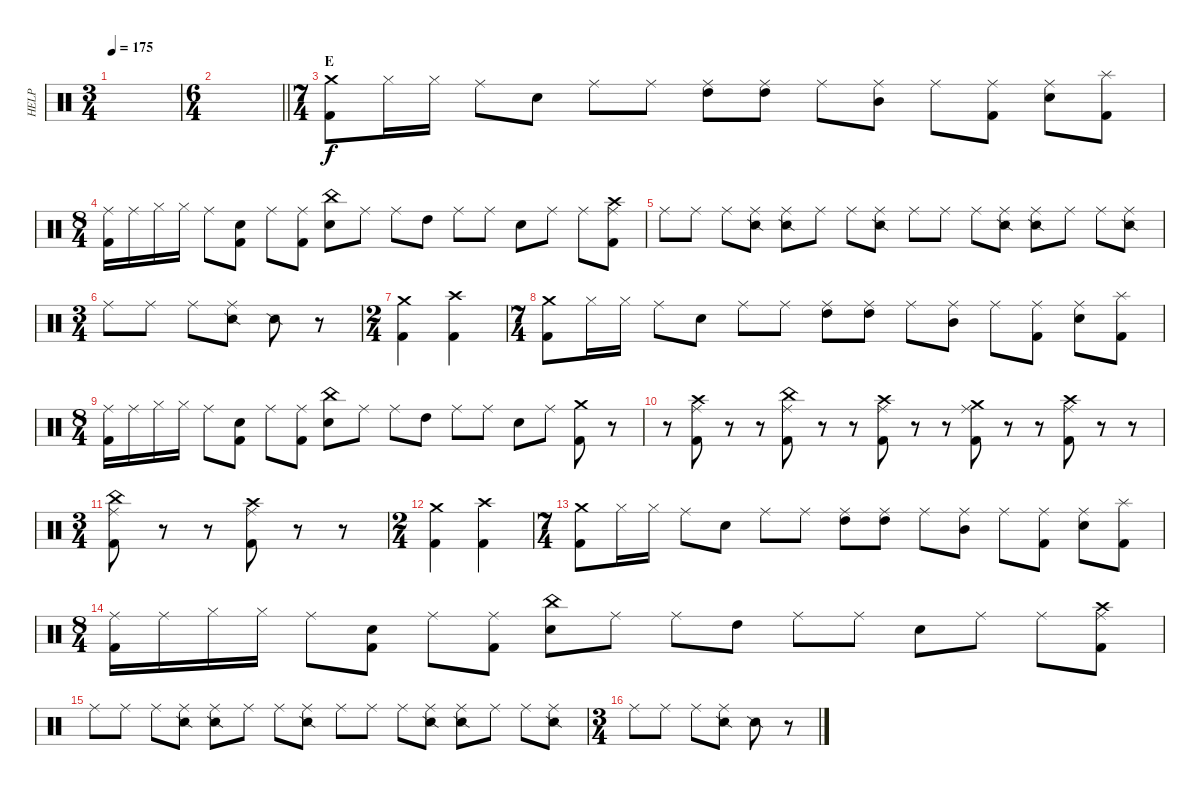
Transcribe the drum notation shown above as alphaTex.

\track ("HELP" "HELP") {instrument percussion}
\staff {score}
\articulation defaults
\ts (3 4)
\tempo 175
\clef neutral
\ks c
|
\ts (6 4)
\barLineRight lightlight
|
\ts (7 4)
\section ("" "E")
("Crash medium (hit)" "Kick (hit) 2").8 "Hi-Hat (closed)".16 "Hi-Hat (closed)".16 "Ride (middle)".8 "Snare (hit) 2".8 "Ride (middle)".8 "Ride (middle)".8 ("Ride (middle)" "High Tom (hit)").8 ("Ride (middle)" "High Tom (hit)").8 "Ride (middle)".8 ("Ride (middle)" "Mid Tom (hit)").8 "Ride (middle)".8 ("Ride (middle)" "Kick (hit) 2").8 ("Ride (middle)" "Snare (hit) 2").8 ("Splash (hit)" "Kick (hit) 2").8 |
\ts (8 4)
("Ride (middle)" "Kick (hit) 2").16 "Ride (middle)".16 "Hi-Hat (closed)".16 "Hi-Hat (closed)".16 "Ride (middle)".8 ("Snare (hit) 2" "Kick (hit) 2").8 "Ride (middle)".8 ("Ride (middle)" "Kick (hit) 2").8 ("China (hit)" "Snare (hit) 2").8 "Ride (middle)".8 "Ride (middle)".8 "High Tom (hit)".8 "Ride (middle)".8 "Ride (middle)".8 "Snare (hit) 2".8 "Ride (middle)".8 "Ride (middle)".8 ("Crash high (hit)" "Ride (middle)" "Kick (hit) 2").8 |
"Ride (middle)".8 "Ride (middle)".8 "Ride (middle)".8 ("Ride (middle)" "Snare (side stick) 2").8 ("Ride (middle)" "Snare (side stick) 2").8 "Ride (middle)".8 "Ride (middle)".8 ("Ride (middle)" "Snare (side stick) 2").8 "Ride (middle)".8 "Ride (middle)".8 "Ride (middle)".8 ("Ride (middle)" "Snare (side stick) 2").8 ("Ride (middle)" "Snare (side stick) 2").8 "Ride (middle)".8 "Ride (middle)".8 ("Ride (middle)" "Snare (side stick) 2").8 |
\ts (3 4)
"Ride (middle)".8 "Ride (middle)".8 "Ride (middle)".8 ("Ride (middle)" "Snare (side stick) 2").8 "Snare (side stick) 2".8 r.8 |
\ts (2 4)
("Crash medium (hit)" "Kick (hit) 2").4 ("Crash high (hit)" "Kick (hit) 2").4 |
\ts (7 4)
("Crash medium (hit)" "Kick (hit) 2").8 "Hi-Hat (closed)".16 "Hi-Hat (closed)".16 "Ride (middle)".8 "Snare (hit) 2".8 "Ride (middle)".8 "Ride (middle)".8 ("Ride (middle)" "High Tom (hit)").8 ("Ride (middle)" "High Tom (hit)").8 "Ride (middle)".8 ("Ride (middle)" "Mid Tom (hit)").8 "Ride (middle)".8 ("Ride (middle)" "Kick (hit) 2").8 ("Ride (middle)" "Snare (hit) 2").8 ("Splash (hit)" "Kick (hit) 2").8 |
\ts (8 4)
("Ride (middle)" "Kick (hit) 2").16 "Ride (middle)".16 "Hi-Hat (closed)".16 "Hi-Hat (closed)".16 "Ride (middle)".8 ("Snare (hit) 2" "Kick (hit) 2").8 "Ride (middle)".8 ("Ride (middle)" "Kick (hit) 2").8 ("China (hit)" "Snare (hit) 2").8 "Ride (middle)".8 "Ride (middle)".8 "High Tom (hit)".8 "Ride (middle)".8 "Ride (middle)".8 "Snare (hit) 2".8 "Ride (middle)".8 ("Crash medium (hit)" "Kick (hit) 2").8 r.8 |
r.8 ("Crash high (hit)" "Ride (middle)" "Kick (hit) 2").8 r.8 r.8 ("China (hit)" "Ride (middle)" "Kick (hit) 2").8 r.8 r.8 ("Crash high (hit)" "Ride (middle)" "Kick (hit) 2").8 r.8 r.8 ("Crash medium (hit)" "Ride (middle)" "Kick (hit) 2").8 r.8 r.8 ("Crash high (hit)" "Ride (middle)" "Kick (hit) 2").8 r.8 r.8 |
\ts (3 4)
("China (hit)" "Ride (middle)" "Kick (hit) 2").8 r.8 r.8 ("Crash high (hit)" "Ride (middle)" "Kick (hit) 2").8 r.8 r.8 |
\ts (2 4)
("Crash medium (hit)" "Kick (hit) 2").4 ("Crash high (hit)" "Kick (hit) 2").4 |
\ts (7 4)
("Crash medium (hit)" "Kick (hit) 2").8 "Hi-Hat (closed)".16 "Hi-Hat (closed)".16 "Ride (middle)".8 "Snare (hit) 2".8 "Ride (middle)".8 "Ride (middle)".8 ("Ride (middle)" "High Tom (hit)").8 ("Ride (middle)" "High Tom (hit)").8 "Ride (middle)".8 ("Ride (middle)" "Mid Tom (hit)").8 "Ride (middle)".8 ("Ride (middle)" "Kick (hit) 2").8 ("Ride (middle)" "Snare (hit) 2").8 ("Splash (hit)" "Kick (hit) 2").8 |
\ts (8 4)
("Ride (middle)" "Kick (hit) 2").16 "Ride (middle)".16 "Hi-Hat (closed)".16 "Hi-Hat (closed)".16 "Ride (middle)".8 ("Snare (hit) 2" "Kick (hit) 2").8 "Ride (middle)".8 ("Ride (middle)" "Kick (hit) 2").8 ("China (hit)" "Snare (hit) 2").8 "Ride (middle)".8 "Ride (middle)".8 "High Tom (hit)".8 "Ride (middle)".8 "Ride (middle)".8 "Snare (hit) 2".8 "Ride (middle)".8 "Ride (middle)".8 ("Crash high (hit)" "Ride (middle)" "Kick (hit) 2").8 |
"Ride (middle)".8 "Ride (middle)".8 "Ride (middle)".8 ("Ride (middle)" "Snare (side stick) 2").8 ("Ride (middle)" "Snare (side stick) 2").8 "Ride (middle)".8 "Ride (middle)".8 ("Ride (middle)" "Snare (side stick) 2").8 "Ride (middle)".8 "Ride (middle)".8 "Ride (middle)".8 ("Ride (middle)" "Snare (side stick) 2").8 ("Ride (middle)" "Snare (side stick) 2").8 "Ride (middle)".8 "Ride (middle)".8 ("Ride (middle)" "Snare (side stick) 2").8 |
\ts (3 4)
"Ride (middle)".8 "Ride (middle)".8 "Ride (middle)".8 ("Ride (middle)" "Snare (side stick) 2").8 "Snare (side stick) 2".8 r.8
